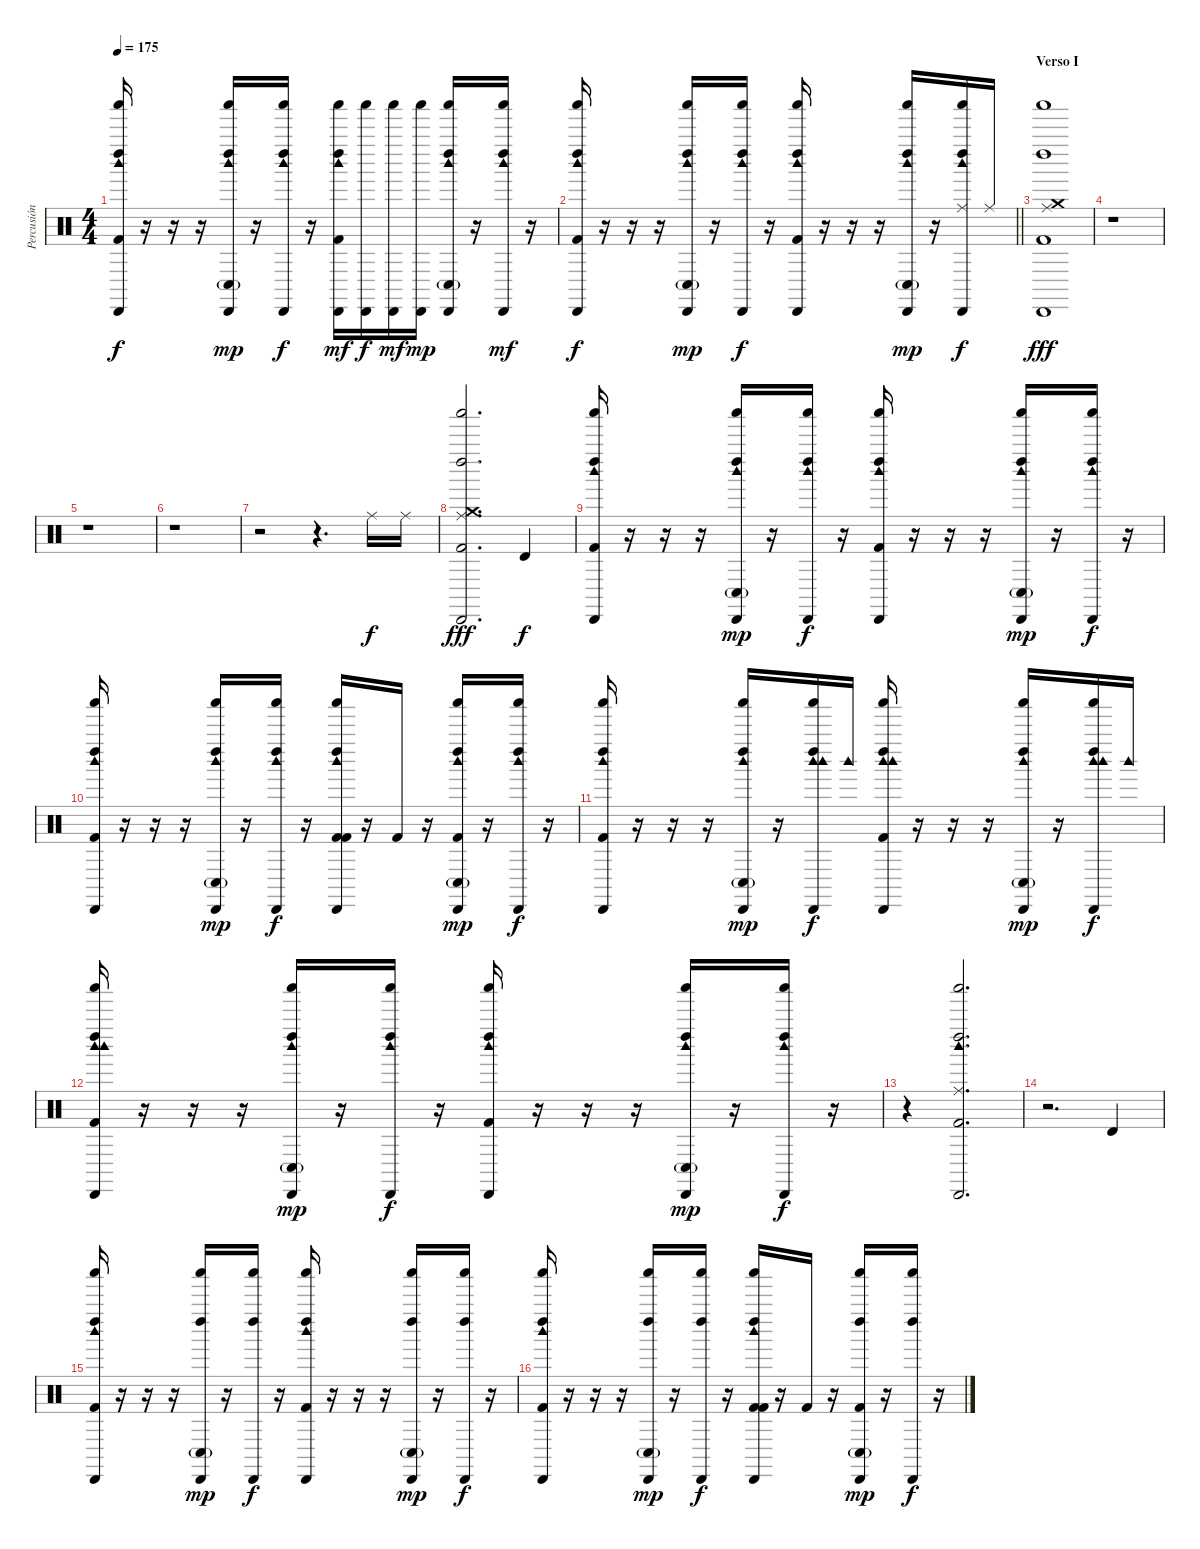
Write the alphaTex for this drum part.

\track ("Percusión" "Percusión") {instrument percussion}
\staff {score}
\articulation defaults
\ts (4 4)
\tempo 175
\clef neutral
\ks c
("Cabasa (hit)" "Shaker (hit)" "Kick (hit) 2" "Left Maraca (hit)" "Woodblock high (hit)").16{dy f} r.16 r.16 r.16 ("Cabasa (hit)" "Shaker (hit)" "Conga low (hit)"{g} "Left Maraca (hit)" "Woodblock high (hit)").16{dy mp} r.16 ("Cabasa (hit)" "Shaker (hit)" "Left Maraca (hit)" "Woodblock high (hit)").16{dy f} r.16 ("Cabasa (hit)" "Shaker (hit)" "Left Maraca (hit)" "Woodblock high (hit)" "Kick (hit) 2").16{dy mf} ("Cabasa (hit)" "Shaker (hit)").16{dy f} ("Cabasa (hit)" "Shaker (hit)").16{dy mf} ("Cabasa (hit)" "Shaker (hit)").16{dy mp} ("Cabasa (hit)" "Shaker (hit)" "Left Maraca (hit)" "Woodblock high (hit)" "Conga low (hit)"{g}).16 r.16 ("Cabasa (hit)" "Shaker (hit)" "Left Maraca (hit)" "Woodblock high (hit)").16{dy mf} r.16 |
\barLineRight lightlight
("Cabasa (hit)" "Shaker (hit)" "Kick (hit) 2" "Left Maraca (hit)" "Woodblock high (hit)").16{dy f} r.16 r.16 r.16 ("Cabasa (hit)" "Shaker (hit)" "Conga low (hit)"{g} "Left Maraca (hit)" "Woodblock high (hit)").16{dy mp} r.16 ("Cabasa (hit)" "Shaker (hit)" "Left Maraca (hit)" "Woodblock high (hit)").16{dy f} r.16 ("Cabasa (hit)" "Shaker (hit)" "Kick (hit) 2" "Left Maraca (hit)" "Woodblock high (hit)").16 r.16 r.16 r.16 ("Cabasa (hit)" "Shaker (hit)" "Conga low (hit)"{g} "Left Maraca (hit)" "Woodblock high (hit)").16{dy mp} r.16 ("Ride (middle)" "Cabasa (hit)" "Shaker (hit)" "Left Maraca (hit)" "Woodblock high (hit)").16{dy f} "Ride (middle)".16 |
\section ("" "Verso I")
("Cabasa (hit)" "Left Maraca (hit)" "Crash medium (hit)" "Shaker (hit)" "Ride (middle)" "Kick (hit) 2").1{dy fff} |
r.1 |
r.1 |
r.1 |
r.2 r.4{d} "Ride (middle)".16{dy f} "Ride (middle)".16 |
("Cabasa (hit)" "Left Maraca (hit)" "Crash medium (hit)" "Shaker (hit)" "Ride (middle)" "Kick (hit) 2").2{d dy fff} "Timbale high (hit)".4{dy f} |
("Cabasa (hit)" "Shaker (hit)" "Kick (hit) 2" "Left Maraca (hit)" "Woodblock high (hit)").16 r.16 r.16 r.16 ("Cabasa (hit)" "Shaker (hit)" "Conga low (hit)"{g} "Left Maraca (hit)" "Woodblock high (hit)").16{dy mp} r.16 ("Cabasa (hit)" "Shaker (hit)" "Left Maraca (hit)" "Woodblock high (hit)").16{dy f} r.16 ("Cabasa (hit)" "Shaker (hit)" "Kick (hit) 2" "Left Maraca (hit)" "Woodblock high (hit)").16 r.16 r.16 r.16 ("Cabasa (hit)" "Shaker (hit)" "Conga low (hit)"{g} "Left Maraca (hit)" "Woodblock high (hit)").16{dy mp} r.16 ("Cabasa (hit)" "Shaker (hit)" "Left Maraca (hit)" "Woodblock high (hit)").16{dy f} r.16 |
("Cabasa (hit)" "Shaker (hit)" "Kick (hit) 2" "Left Maraca (hit)" "Woodblock high (hit)").16 r.16 r.16 r.16 ("Cabasa (hit)" "Shaker (hit)" "Conga low (hit)"{g} "Left Maraca (hit)" "Woodblock high (hit)").16{dy mp} r.16 ("Cabasa (hit)" "Shaker (hit)" "Left Maraca (hit)" "Woodblock high (hit)").16{dy f} r.16 ("Kick (hit) 2" "Cabasa (hit)" "Shaker (hit)" "Kick (hit) 2" "Left Maraca (hit)" "Woodblock high (hit)").16 r.16 "Kick (hit) 2".16 r.16 ("Kick (hit) 2" "Cabasa (hit)" "Shaker (hit)" "Conga low (hit)"{g} "Left Maraca (hit)" "Woodblock high (hit)").16{dy mp} r.16 ("Cabasa (hit)" "Shaker (hit)" "Left Maraca (hit)" "Woodblock high (hit)").16{dy f} r.16 |
("Cabasa (hit)" "Shaker (hit)" "Kick (hit) 2" "Left Maraca (hit)" "Woodblock high (hit)").16 r.16 r.16 r.16 ("Cabasa (hit)" "Shaker (hit)" "Conga low (hit)"{g} "Left Maraca (hit)" "Woodblock high (hit)").16{dy mp} r.16 ("Woodblock high (hit)" "Cabasa (hit)" "Shaker (hit)" "Left Maraca (hit)" "Woodblock high (hit)").16{dy f} "Woodblock high (hit)".16 ("Woodblock high (hit)" "Cabasa (hit)" "Shaker (hit)" "Kick (hit) 2" "Left Maraca (hit)" "Woodblock high (hit)").16 r.16 r.16 r.16 ("Cabasa (hit)" "Shaker (hit)" "Conga low (hit)"{g} "Left Maraca (hit)" "Woodblock high (hit)").16{dy mp} r.16 ("Woodblock high (hit)" "Cabasa (hit)" "Shaker (hit)" "Left Maraca (hit)" "Woodblock high (hit)").16{dy f} "Woodblock high (hit)".16 |
("Woodblock high (hit)" "Cabasa (hit)" "Shaker (hit)" "Kick (hit) 2" "Left Maraca (hit)" "Woodblock high (hit)").16 r.16 r.16 r.16 ("Cabasa (hit)" "Shaker (hit)" "Conga low (hit)"{g} "Left Maraca (hit)" "Woodblock high (hit)").16{dy mp} r.16 ("Cabasa (hit)" "Shaker (hit)" "Left Maraca (hit)" "Woodblock high (hit)").16{dy f} r.16 ("Cabasa (hit)" "Shaker (hit)" "Kick (hit) 2" "Left Maraca (hit)" "Woodblock high (hit)").16 r.16 r.16 r.16 ("Cabasa (hit)" "Shaker (hit)" "Conga low (hit)"{g} "Left Maraca (hit)" "Woodblock high (hit)").16{dy mp} r.16 ("Cabasa (hit)" "Shaker (hit)" "Left Maraca (hit)" "Woodblock high (hit)").16{dy f} r.16 |
r.4 ("Ride (middle)" "Cabasa (hit)" "Shaker (hit)" "Kick (hit) 2" "Left Maraca (hit)" "Woodblock high (hit)").2{d} |
r.2{d} "Timbale high (hit)".4 |
("Cabasa (hit)" "Shaker (hit)" "Kick (hit) 2" "Left Maraca (hit)" "Woodblock high (hit)").16 r.16 r.16 r.16 ("Cabasa (hit)" "Shaker (hit)" "Conga low (hit)"{g} "Left Maraca (hit)").16{dy mp} r.16 ("Cabasa (hit)" "Shaker (hit)" "Left Maraca (hit)").16{dy f} r.16 ("Cabasa (hit)" "Shaker (hit)" "Kick (hit) 2" "Left Maraca (hit)" "Woodblock high (hit)").16 r.16 r.16 r.16 ("Cabasa (hit)" "Shaker (hit)" "Conga low (hit)"{g} "Left Maraca (hit)").16{dy mp} r.16 ("Cabasa (hit)" "Shaker (hit)" "Left Maraca (hit)").16{dy f} r.16 |
("Cabasa (hit)" "Shaker (hit)" "Kick (hit) 2" "Left Maraca (hit)" "Woodblock high (hit)").16 r.16 r.16 r.16 ("Cabasa (hit)" "Shaker (hit)" "Conga low (hit)"{g} "Left Maraca (hit)").16{dy mp} r.16 ("Cabasa (hit)" "Shaker (hit)" "Left Maraca (hit)").16{dy f} r.16 ("Kick (hit) 2" "Cabasa (hit)" "Shaker (hit)" "Kick (hit) 2" "Left Maraca (hit)" "Woodblock high (hit)").16 r.16 "Kick (hit) 2".16 r.16 ("Kick (hit) 2" "Cabasa (hit)" "Shaker (hit)" "Conga low (hit)"{g} "Left Maraca (hit)").16{dy mp} r.16 ("Cabasa (hit)" "Shaker (hit)" "Left Maraca (hit)").16{dy f} r.16
